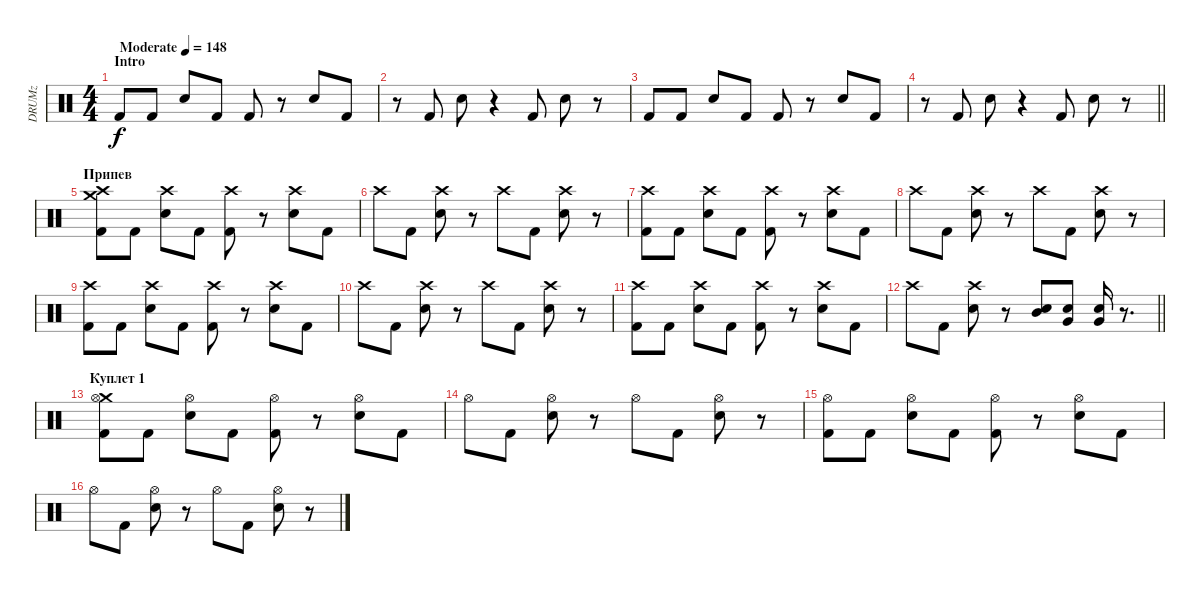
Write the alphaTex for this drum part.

\track ("DRUMz" "DRUMz") {instrument percussion}
\staff {score}
\articulation defaults
\ts (4 4)
\section ("" "Intro")
\tempo (148 "Moderate")
\clef neutral
\ks c "Kick (hit) 2".8{dy f} "Kick (hit) 2".8 "Snare (hit) 2".8 "Kick (hit) 2".8 "Kick (hit) 2".8
r.8 "Snare (hit) 2".8 "Kick (hit) 2".8 |
r.8 "Kick (hit) 2".8 "Snare (hit) 2".8 r.4 "Kick (hit) 2".8 "Snare (hit) 2".8 r.8 |
"Kick (hit) 2".8 "Kick (hit) 2".8 "Snare (hit) 2".8 "Kick (hit) 2".8 "Kick (hit) 2".8 r.8 "Snare (hit) 2".8 "Kick (hit) 2".8 |
\barLineRight lightlight
r.8 "Kick (hit) 2".8 "Snare (hit) 2".8 r.4 "Kick (hit) 2".8 "Snare (hit) 2".8 r.8 |
\section ("" "Припев")
("Crash medium (hit)" "Crash high (hit)" "Kick (hit) 2").8 "Kick (hit) 2".8 ("Crash high (hit)" "Snare (hit) 2").8 "Kick (hit) 2".8 ("Crash high (hit)" "Kick (hit) 2").8 r.8 ("Crash high (hit)" "Snare (hit) 2").8 "Kick (hit) 2".8 |
"Crash high (hit)".8 "Kick (hit) 2".8 ("Crash high (hit)" "Snare (hit) 2").8 r.8 "Crash high (hit)".8 "Kick (hit) 2".8 ("Crash high (hit)" "Snare (hit) 2").8 r.8 |
("Crash high (hit)" "Kick (hit) 2").8 "Kick (hit) 2".8 ("Crash high (hit)" "Snare (hit) 2").8 "Kick (hit) 2".8 ("Crash high (hit)" "Kick (hit) 2").8 r.8 ("Crash high (hit)" "Snare (hit) 2").8 "Kick (hit) 2".8 |
"Crash high (hit)".8 "Kick (hit) 2".8 ("Crash high (hit)" "Snare (hit) 2").8 r.8 "Crash high (hit)".8 "Kick (hit) 2".8 ("Crash high (hit)" "Snare (hit) 2").8 r.8 |
("Crash high (hit)" "Kick (hit) 2").8 "Kick (hit) 2".8 ("Crash high (hit)" "Snare (hit) 2").8 "Kick (hit) 2".8 ("Crash high (hit)" "Kick (hit) 2").8 r.8 ("Crash high (hit)" "Snare (hit) 2").8 "Kick (hit) 2".8 |
"Crash high (hit)".8 "Kick (hit) 2".8 ("Crash high (hit)" "Snare (hit) 2").8 r.8 "Crash high (hit)".8 "Kick (hit) 2".8 ("Crash high (hit)" "Snare (hit) 2").8 r.8 |
("Crash high (hit)" "Kick (hit) 2").8 "Kick (hit) 2".8 ("Crash high (hit)" "Snare (hit) 2").8 "Kick (hit) 2".8 ("Crash high (hit)" "Kick (hit) 2").8 r.8 ("Crash high (hit)" "Snare (hit) 2").8 "Kick (hit) 2".8 |
\barLineRight lightlight "Crash high (hit)".8 "Kick (hit) 2".8
("Crash high (hit)" "Snare (hit) 2").8 r.8 ("Mid Tom (hit)" "Snare (hit) 2").8 ("Very Low Tom (hit)" "Snare (hit) 2").8 ("Snare (hit) 2" "Very Low Tom (hit)").16 r.8{d} |
\section ("" "Куплет 1")
("Crash medium (hit)" "Hi-Hat (open)" "Kick (hit) 2").8 "Kick (hit) 2".8 ("Hi-Hat (open)" "Snare (hit) 2").8 "Kick (hit) 2".8 ("Hi-Hat (open)" "Kick (hit) 2").8 r.8 ("Hi-Hat (open)" "Snare (hit) 2").8 "Kick (hit) 2".8 |
"Hi-Hat (open)".8 "Kick (hit) 2".8 ("Hi-Hat (open)" "Snare (hit) 2").8 r.8 "Hi-Hat (open)".8 "Kick (hit) 2".8 ("Hi-Hat (open)" "Snare (hit) 2").8 r.8 |
("Hi-Hat (open)" "Kick (hit) 2").8 "Kick (hit) 2".8 ("Hi-Hat (open)" "Snare (hit) 2").8 "Kick (hit) 2".8 ("Hi-Hat (open)" "Kick (hit) 2").8 r.8 ("Hi-Hat (open)" "Snare (hit) 2").8 "Kick (hit) 2".8 |
"Hi-Hat (open)".8 "Kick (hit) 2".8 ("Hi-Hat (open)" "Snare (hit) 2").8 r.8 "Hi-Hat (open)".8 "Kick (hit) 2".8 ("Hi-Hat (open)" "Snare (hit) 2").8 r.8
